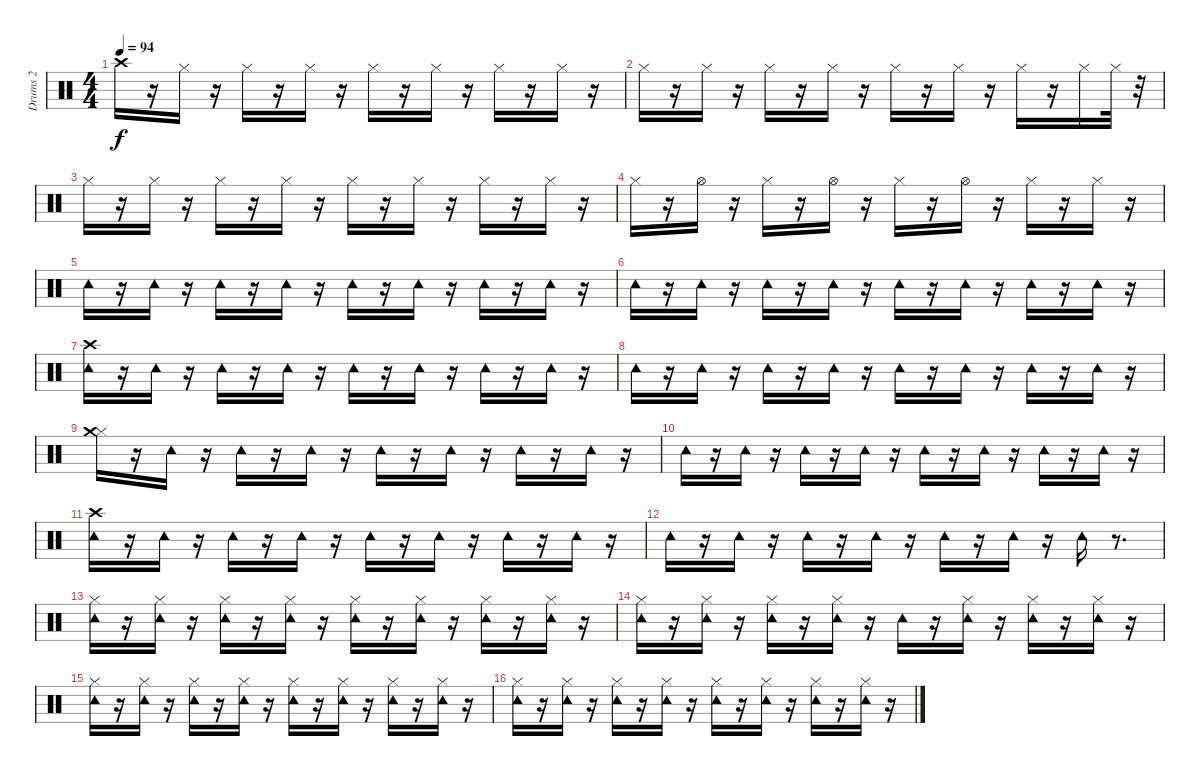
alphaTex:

\track ("Drums 2" "Drums 2") {instrument percussion}
\staff {score}
\articulation defaults
\ts (4 4)
\tempo 94
\clef neutral
\ks c "Crash high (hit)".16{dy f}
r.16 "Hi-Hat (closed)".16 r.16 "Hi-Hat (closed)".16 r.16 "Hi-Hat (closed)".16 r.16 "Hi-Hat (closed)".16 r.16 "Hi-Hat (closed)".16 r.16 "Hi-Hat (closed)".16 r.16 "Hi-Hat (closed)".16 r.16 |
"Hi-Hat (closed)".16 r.16 "Hi-Hat (closed)".16 r.16 "Hi-Hat (closed)".16 r.16 "Hi-Hat (closed)".16 r.16 "Hi-Hat (closed)".16 r.16 "Hi-Hat (closed)".16 r.16 "Hi-Hat (closed)".16 r.16 "Hi-Hat (closed)".16 "Hi-Hat (closed)".32 r.32 |
"Hi-Hat (closed)".16 r.16 "Hi-Hat (closed)".16 r.16 "Hi-Hat (closed)".16 r.16 "Hi-Hat (closed)".16 r.16 "Hi-Hat (closed)".16 r.16 "Hi-Hat (closed)".16 r.16 "Hi-Hat (closed)".16 r.16 "Hi-Hat (closed)".16 r.16 |
"Hi-Hat (closed)".16 r.16 "Hi-Hat (open)".16 r.16 "Hi-Hat (closed)".16 r.16 "Hi-Hat (open)".16 r.16 "Hi-Hat (closed)".16 r.16 "Hi-Hat (open)".16 r.16 "Hi-Hat (closed)".16 r.16 "Hi-Hat (closed)".16 r.16 |
"Tambourine (hit)".16 r.16 "Tambourine (hit)".16 r.16 "Tambourine (hit)".16 r.16 "Tambourine (hit)".16 r.16 "Tambourine (hit)".16 r.16 "Tambourine (hit)".16 r.16 "Tambourine (hit)".16 r.16 "Tambourine (hit)".16 r.16 |
"Tambourine (hit)".16 r.16 "Tambourine (hit)".16 r.16 "Tambourine (hit)".16 r.16 "Tambourine (hit)".16 r.16 "Tambourine (hit)".16 r.16 "Tambourine (hit)".16 r.16 "Tambourine (hit)".16 r.16 "Tambourine (hit)".16 r.16 |
("Tambourine (hit)" "Crash high (hit)").16 r.16 "Tambourine (hit)".16 r.16 "Tambourine (hit)".16 r.16 "Tambourine (hit)".16 r.16 "Tambourine (hit)".16 r.16 "Tambourine (hit)".16 r.16 "Tambourine (hit)".16 r.16 "Tambourine (hit)".16 r.16 |
"Tambourine (hit)".16 r.16 "Tambourine (hit)".16 r.16 "Tambourine (hit)".16 r.16 "Tambourine (hit)".16 r.16 "Tambourine (hit)".16 r.16 "Tambourine (hit)".16 r.16 "Tambourine (hit)".16 r.16 "Tambourine (hit)".16 r.16 |
("Hi-Hat (closed)" "Crash medium (hit)").16 r.16 "Tambourine (hit)".16 r.16 "Tambourine (hit)".16 r.16 "Tambourine (hit)".16 r.16 "Tambourine (hit)".16 r.16 "Tambourine (hit)".16 r.16 "Tambourine (hit)".16 r.16 "Tambourine (hit)".16 r.16 |
"Tambourine (hit)".16 r.16 "Tambourine (hit)".16 r.16 "Tambourine (hit)".16 r.16 "Tambourine (hit)".16 r.16 "Tambourine (hit)".16 r.16 "Tambourine (hit)".16 r.16 "Tambourine (hit)".16 r.16 "Tambourine (hit)".16 r.16 |
("Tambourine (hit)" "Crash high (hit)").16 r.16 "Tambourine (hit)".16 r.16 "Tambourine (hit)".16 r.16 "Tambourine (hit)".16 r.16 "Tambourine (hit)".16 r.16 "Tambourine (hit)".16 r.16 "Tambourine (hit)".16 r.16 "Tambourine (hit)".16 r.16 |
"Tambourine (hit)".16 r.16 "Tambourine (hit)".16 r.16 "Tambourine (hit)".16 r.16 "Tambourine (hit)".16 r.16 "Tambourine (hit)".16 r.16 "Tambourine (hit)".16 r.16 "Tambourine (hit)".16 r.8{d} |
("Tambourine (hit)" "Hi-Hat (closed)").16 r.16 ("Hi-Hat (closed)" "Tambourine (hit)").16 r.16 ("Hi-Hat (closed)" "Tambourine (hit)").16 r.16 ("Hi-Hat (closed)" "Tambourine (hit)").16 r.16 ("Hi-Hat (closed)" "Tambourine (hit)").16 r.16 ("Hi-Hat (closed)" "Tambourine (hit)").16 r.16 ("Hi-Hat (closed)" "Tambourine (hit)").16 r.16 ("Hi-Hat (closed)" "Tambourine (hit)").16 r.16 |
("Hi-Hat (closed)" "Tambourine (hit)").16 r.16 ("Hi-Hat (closed)" "Tambourine (hit)").16 r.16 ("Tambourine (hit)" "Hi-Hat (closed)").16 r.16 ("Tambourine (hit)" "Hi-Hat (closed)").16 r.16 "Tambourine (hit)".16 r.16 ("Hi-Hat (closed)" "Tambourine (hit)").16 r.16 ("Hi-Hat (closed)" "Tambourine (hit)").16 r.16 ("Hi-Hat (closed)" "Tambourine (hit)").16 r.16 |
("Tambourine (hit)" "Hi-Hat (closed)").16 r.16 ("Hi-Hat (closed)" "Tambourine (hit)").16 r.16 ("Hi-Hat (closed)" "Tambourine (hit)").16 r.16 ("Tambourine (hit)" "Hi-Hat (closed)").16 r.16 ("Tambourine (hit)" "Hi-Hat (closed)").16 r.16 ("Hi-Hat (closed)" "Tambourine (hit)").16 r.16 ("Tambourine (hit)" "Hi-Hat (closed)").16 r.16 ("Hi-Hat (closed)" "Tambourine (hit)").16 r.16 |
("Tambourine (hit)" "Hi-Hat (closed)").16 r.16 ("Hi-Hat (closed)" "Tambourine (hit)").16 r.16 ("Tambourine (hit)" "Hi-Hat (closed)").16 r.16 ("Tambourine (hit)" "Hi-Hat (closed)").16 r.16 ("Tambourine (hit)" "Hi-Hat (closed)").16 r.16 ("Hi-Hat (closed)" "Tambourine (hit)").16 r.16 ("Tambourine (hit)" "Hi-Hat (closed)").16 r.16 ("Hi-Hat (closed)" "Tambourine (hit)").16 r.16
